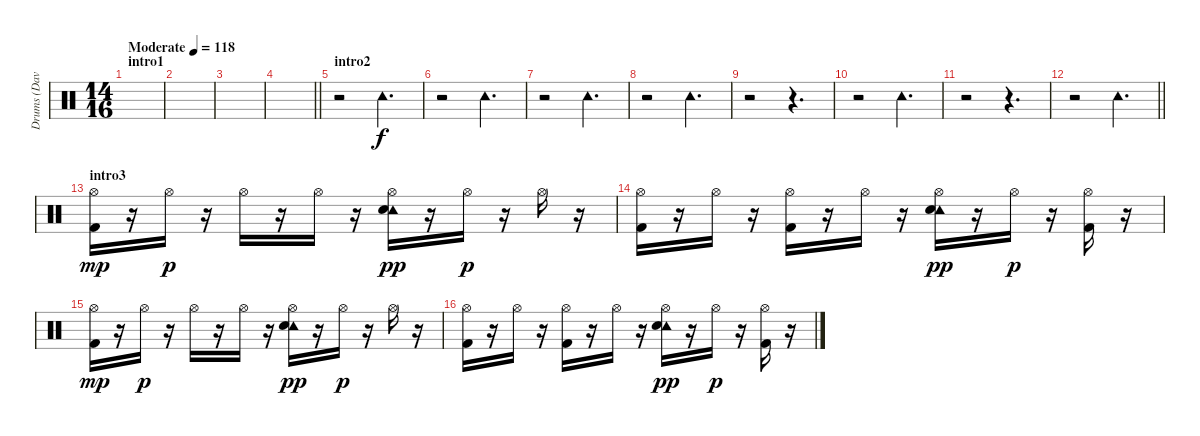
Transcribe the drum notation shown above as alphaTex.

\track ("Drums (Dave Turncrantz)" "Drums (Dav") {instrument percussion}
\staff {score}
\articulation defaults
\ts (14 16)
\section ("" "intro1")
\tempo (118 "Moderate")
\clef neutral
\ks c
|
|
|
\barLineRight lightlight
|
\section ("" "intro2")
r.2 "Tambourine (hit)".4{d} |
r.2 "Tambourine (hit)".4{d} |
r.2 "Tambourine (hit)".4{d} |
r.2 "Tambourine (hit)".4{d} |
r.2 r.4{d} |
r.2 "Tambourine (hit)".4{d} |
r.2 r.4{d} |
\barLineRight lightlight
r.2 "Tambourine (hit)".4{d} |
\section ("" "intro3")
("Hi-Hat (open)" "Kick (hit) 2").16{dy mp} r.16 "Hi-Hat (open)".16{dy p} r.16 "Hi-Hat (open)".16 r.16 "Hi-Hat (open)".16 r.16 ("Hi-Hat (open)" "Tambourine (hit)" "Snare (hit) 2").16{dy pp} r.16 "Hi-Hat (open)".16{dy p} r.16 "Hi-Hat (open)".16 r.16 |
("Hi-Hat (open)" "Kick (hit) 2").16 r.16 "Hi-Hat (open)".16 r.16 ("Hi-Hat (open)" "Kick (hit) 2").16 r.16 "Hi-Hat (open)".16 r.16 ("Hi-Hat (open)" "Tambourine (hit)" "Snare (hit) 2").16{dy pp} r.16 "Hi-Hat (open)".16{dy p} r.16 ("Hi-Hat (open)" "Kick (hit) 2").16 r.16 |
("Hi-Hat (open)" "Kick (hit) 2").16{dy mp} r.16 "Hi-Hat (open)".16{dy p} r.16 "Hi-Hat (open)".16 r.16 "Hi-Hat (open)".16 r.16 ("Hi-Hat (open)" "Tambourine (hit)" "Snare (hit) 2").16{dy pp} r.16 "Hi-Hat (open)".16{dy p} r.16 "Hi-Hat (open)".16 r.16 |
("Hi-Hat (open)" "Kick (hit) 2").16 r.16 "Hi-Hat (open)".16 r.16 ("Hi-Hat (open)" "Kick (hit) 2").16 r.16 "Hi-Hat (open)".16 r.16 ("Hi-Hat (open)" "Tambourine (hit)" "Snare (hit) 2").16{dy pp} r.16 "Hi-Hat (open)".16{dy p} r.16 ("Hi-Hat (open)" "Kick (hit) 2").16 r.16
